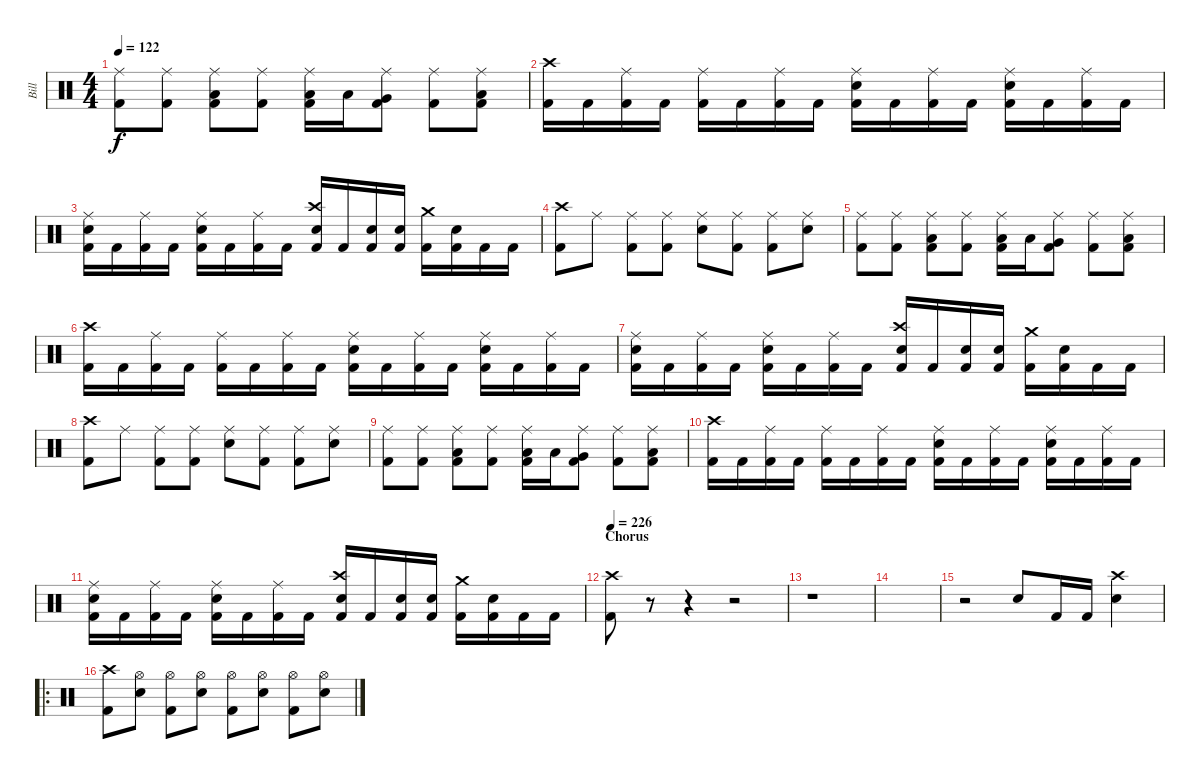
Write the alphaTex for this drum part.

\track ("Bill" "Bill") {instrument percussion}
\staff {score}
\articulation defaults
\ts (4 4)
\tempo 122
\clef neutral
\ks c
("Ride (middle)" "Kick (hit) 2").8{dy f} ("Ride (middle)" "Kick (hit) 2").8 ("Ride (middle)" "Low Tom (hit)" "Kick (hit) 2").8 ("Ride (middle)" "Kick (hit) 2").8 ("Ride (middle)" "Low Tom (hit)" "Kick (hit) 2").16 "Low Tom (hit)".16 ("Ride (middle)" "Very Low Tom (hit)" "Kick (hit) 2").8 ("Ride (middle)" "Kick (hit) 2").8 ("Ride (middle)" "Low Floor Tom (hit)" "Kick (hit) 2").8 |
("Crash high (hit)" "Kick (hit) 2").16 "Kick (hit) 2".16 ("Ride (middle)" "Kick (hit) 2").16 "Kick (hit) 2".16 ("Ride (middle)" "Kick (hit) 2").16 "Kick (hit) 2".16 ("Ride (middle)" "Kick (hit) 2").16 "Kick (hit) 2".16 ("Ride (middle)" "Electric Snare (hit)" "Kick (hit) 2").16 "Kick (hit) 2".16 ("Ride (middle)" "Kick (hit) 2").16 "Kick (hit) 2".16 ("Ride (middle)" "Electric Snare (hit)" "Kick (hit) 2").16 "Kick (hit) 2".16 ("Ride (middle)" "Kick (hit) 2").16 "Kick (hit) 2".16 |
("Ride (middle)" "Electric Snare (hit)" "Kick (hit) 2").16 "Kick (hit) 2".16 ("Ride (middle)" "Kick (hit) 2").16 "Kick (hit) 2".16 ("Ride (middle)" "Electric Snare (hit)" "Kick (hit) 2").16 "Kick (hit) 2".16 ("Ride (middle)" "Kick (hit) 2").16 "Kick (hit) 2".16 ("Crash high (hit)" "Electric Snare (hit)" "Kick (hit) 2").16 "Kick (hit) 2".16 ("Electric Snare (hit)" "Kick (hit) 2").16 ("Electric Snare (hit)" "Kick (hit) 2").16 ("Crash medium (hit)" "Kick (hit) 2").16 ("Electric Snare (hit)" "Kick (hit) 2").16 "Kick (hit) 2".16 "Kick (hit) 2".16 |
("Crash high (hit)" "Kick (hit) 2").8 "Ride (middle)".8 ("Ride (middle)" "Kick (hit) 2").8 ("Ride (middle)" "Kick (hit) 2").8 ("Ride (middle)" "Electric Snare (hit)").8 ("Ride (middle)" "Kick (hit) 2").8 ("Ride (middle)" "Kick (hit) 2").8 ("Ride (middle)" "Electric Snare (hit)").8 |
("Ride (middle)" "Kick (hit) 2").8 ("Ride (middle)" "Kick (hit) 2").8 ("Ride (middle)" "Low Tom (hit)" "Kick (hit) 2").8 ("Ride (middle)" "Kick (hit) 2").8 ("Ride (middle)" "Low Tom (hit)" "Kick (hit) 2").16 "Low Tom (hit)".16 ("Ride (middle)" "Very Low Tom (hit)" "Kick (hit) 2").8 ("Ride (middle)" "Kick (hit) 2").8 ("Ride (middle)" "Low Floor Tom (hit)" "Kick (hit) 2").8 |
("Crash high (hit)" "Kick (hit) 2").16 "Kick (hit) 2".16 ("Ride (middle)" "Kick (hit) 2").16 "Kick (hit) 2".16 ("Ride (middle)" "Kick (hit) 2").16 "Kick (hit) 2".16 ("Ride (middle)" "Kick (hit) 2").16 "Kick (hit) 2".16 ("Ride (middle)" "Electric Snare (hit)" "Kick (hit) 2").16 "Kick (hit) 2".16 ("Ride (middle)" "Kick (hit) 2").16 "Kick (hit) 2".16 ("Ride (middle)" "Electric Snare (hit)" "Kick (hit) 2").16 "Kick (hit) 2".16 ("Ride (middle)" "Kick (hit) 2").16 "Kick (hit) 2".16 |
("Ride (middle)" "Electric Snare (hit)" "Kick (hit) 2").16 "Kick (hit) 2".16 ("Ride (middle)" "Kick (hit) 2").16 "Kick (hit) 2".16 ("Ride (middle)" "Electric Snare (hit)" "Kick (hit) 2").16 "Kick (hit) 2".16 ("Ride (middle)" "Kick (hit) 2").16 "Kick (hit) 2".16 ("Crash high (hit)" "Electric Snare (hit)" "Kick (hit) 2").16 "Kick (hit) 2".16 ("Electric Snare (hit)" "Kick (hit) 2").16 ("Electric Snare (hit)" "Kick (hit) 2").16 ("Crash medium (hit)" "Kick (hit) 2").16 ("Electric Snare (hit)" "Kick (hit) 2").16 "Kick (hit) 2".16 "Kick (hit) 2".16 |
("Crash high (hit)" "Kick (hit) 2").8 "Ride (middle)".8 ("Ride (middle)" "Kick (hit) 2").8 ("Ride (middle)" "Kick (hit) 2").8 ("Ride (middle)" "Electric Snare (hit)").8 ("Ride (middle)" "Kick (hit) 2").8 ("Ride (middle)" "Kick (hit) 2").8 ("Ride (middle)" "Electric Snare (hit)").8 |
("Ride (middle)" "Kick (hit) 2").8 ("Ride (middle)" "Kick (hit) 2").8 ("Ride (middle)" "Low Tom (hit)" "Kick (hit) 2").8 ("Ride (middle)" "Kick (hit) 2").8 ("Ride (middle)" "Low Tom (hit)" "Kick (hit) 2").16 "Low Tom (hit)".16 ("Ride (middle)" "Very Low Tom (hit)" "Kick (hit) 2").8 ("Ride (middle)" "Kick (hit) 2").8 ("Ride (middle)" "Low Floor Tom (hit)" "Kick (hit) 2").8 |
("Crash high (hit)" "Kick (hit) 2").16 "Kick (hit) 2".16 ("Ride (middle)" "Kick (hit) 2").16 "Kick (hit) 2".16 ("Ride (middle)" "Kick (hit) 2").16 "Kick (hit) 2".16 ("Ride (middle)" "Kick (hit) 2").16 "Kick (hit) 2".16 ("Ride (middle)" "Electric Snare (hit)" "Kick (hit) 2").16 "Kick (hit) 2".16 ("Ride (middle)" "Kick (hit) 2").16 "Kick (hit) 2".16 ("Ride (middle)" "Electric Snare (hit)" "Kick (hit) 2").16 "Kick (hit) 2".16 ("Ride (middle)" "Kick (hit) 2").16 "Kick (hit) 2".16 |
("Ride (middle)" "Electric Snare (hit)" "Kick (hit) 2").16 "Kick (hit) 2".16 ("Ride (middle)" "Kick (hit) 2").16 "Kick (hit) 2".16 ("Ride (middle)" "Electric Snare (hit)" "Kick (hit) 2").16 "Kick (hit) 2".16 ("Ride (middle)" "Kick (hit) 2").16 "Kick (hit) 2".16 ("Crash high (hit)" "Electric Snare (hit)" "Kick (hit) 2").16 "Kick (hit) 2".16 ("Electric Snare (hit)" "Kick (hit) 2").16 ("Electric Snare (hit)" "Kick (hit) 2").16 ("Crash medium (hit)" "Kick (hit) 2").16 ("Electric Snare (hit)" "Kick (hit) 2").16 "Kick (hit) 2".16 "Kick (hit) 2".16 |
\section ("" "Chorus")
\tempo 226
("Crash high (hit)" "Kick (hit) 2").8 r.8 r.4 r.2 |
r.1 |
|
r.2 "Electric Snare (hit)".8 "Kick (hit) 2".16 "Kick (hit) 2".16 ("Crash high (hit)" "Electric Snare (hit)").4 |
\ro
("Crash high (hit)" "Kick (hit) 2").8 ("Hi-Hat (open)" "Electric Snare (hit)").8 ("Hi-Hat (open)" "Kick (hit) 2").8 ("Hi-Hat (open)" "Electric Snare (hit)").8 ("Hi-Hat (open)" "Kick (hit) 2").8 ("Hi-Hat (open)" "Electric Snare (hit)").8 ("Hi-Hat (open)" "Kick (hit) 2").8 ("Hi-Hat (open)" "Electric Snare (hit)").8
